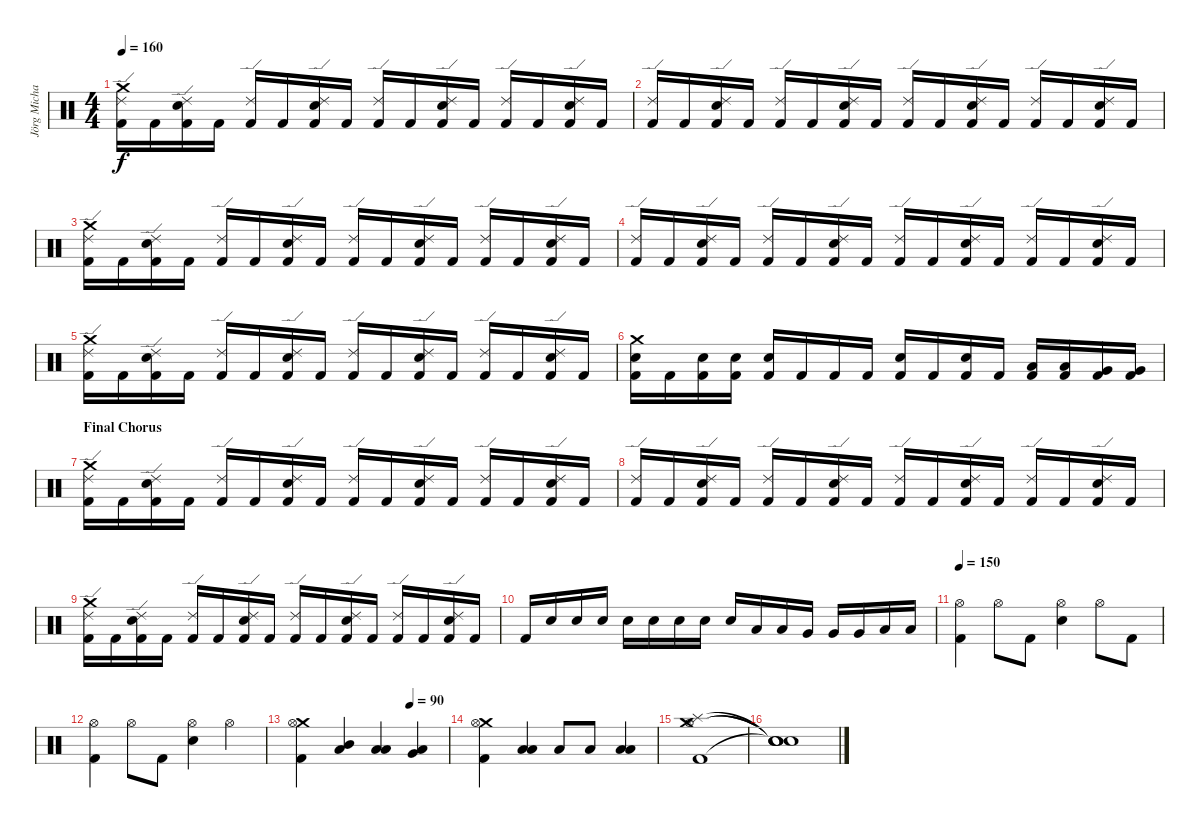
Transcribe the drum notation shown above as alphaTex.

\track ("Jörg Michael" "Jörg Micha") {instrument percussion}
\staff {score}
\articulation defaults
\ts (4 4)
\tempo 160
\clef neutral
\ks c
("Crash medium (hit)" "Ride (edge) 2" "Kick (hit) 2").16{dy f} "Kick (hit) 2".16 ("Electric Snare (hit)" "Ride (edge) 2" "Kick (hit) 2").16 "Kick (hit) 2".16 ("Ride (edge) 2" "Kick (hit) 2").16 "Kick (hit) 2".16 ("Electric Snare (hit)" "Ride (edge) 2" "Kick (hit) 2").16 "Kick (hit) 2".16 ("Ride (edge) 2" "Kick (hit) 2").16 "Kick (hit) 2".16 ("Electric Snare (hit)" "Ride (edge) 2" "Kick (hit) 2").16 "Kick (hit) 2".16 ("Ride (edge) 2" "Kick (hit) 2").16 "Kick (hit) 2".16 ("Electric Snare (hit)" "Ride (edge) 2" "Kick (hit) 2").16 "Kick (hit) 2".16 |
("Ride (edge) 2" "Kick (hit) 2").16 "Kick (hit) 2".16 ("Electric Snare (hit)" "Ride (edge) 2" "Kick (hit) 2").16 "Kick (hit) 2".16 ("Ride (edge) 2" "Kick (hit) 2").16 "Kick (hit) 2".16 ("Electric Snare (hit)" "Ride (edge) 2" "Kick (hit) 2").16 "Kick (hit) 2".16 ("Ride (edge) 2" "Kick (hit) 2").16 "Kick (hit) 2".16 ("Electric Snare (hit)" "Ride (edge) 2" "Kick (hit) 2").16 "Kick (hit) 2".16 ("Ride (edge) 2" "Kick (hit) 2").16 "Kick (hit) 2".16 ("Electric Snare (hit)" "Ride (edge) 2" "Kick (hit) 2").16 "Kick (hit) 2".16 |
("Crash medium (hit)" "Ride (edge) 2" "Kick (hit) 2").16 "Kick (hit) 2".16 ("Electric Snare (hit)" "Ride (edge) 2" "Kick (hit) 2").16 "Kick (hit) 2".16 ("Ride (edge) 2" "Kick (hit) 2").16 "Kick (hit) 2".16 ("Electric Snare (hit)" "Ride (edge) 2" "Kick (hit) 2").16 "Kick (hit) 2".16 ("Ride (edge) 2" "Kick (hit) 2").16 "Kick (hit) 2".16 ("Electric Snare (hit)" "Ride (edge) 2" "Kick (hit) 2").16 "Kick (hit) 2".16 ("Ride (edge) 2" "Kick (hit) 2").16 "Kick (hit) 2".16 ("Electric Snare (hit)" "Ride (edge) 2" "Kick (hit) 2").16 "Kick (hit) 2".16 |
("Ride (edge) 2" "Kick (hit) 2").16 "Kick (hit) 2".16 ("Electric Snare (hit)" "Ride (edge) 2" "Kick (hit) 2").16 "Kick (hit) 2".16 ("Ride (edge) 2" "Kick (hit) 2").16 "Kick (hit) 2".16 ("Electric Snare (hit)" "Ride (edge) 2" "Kick (hit) 2").16 "Kick (hit) 2".16 ("Ride (edge) 2" "Kick (hit) 2").16 "Kick (hit) 2".16 ("Electric Snare (hit)" "Ride (edge) 2" "Kick (hit) 2").16 "Kick (hit) 2".16 ("Ride (edge) 2" "Kick (hit) 2").16 "Kick (hit) 2".16 ("Electric Snare (hit)" "Ride (edge) 2" "Kick (hit) 2").16 "Kick (hit) 2".16 |
("Crash medium (hit)" "Ride (edge) 2" "Kick (hit) 2").16 "Kick (hit) 2".16 ("Electric Snare (hit)" "Ride (edge) 2" "Kick (hit) 2").16 "Kick (hit) 2".16 ("Ride (edge) 2" "Kick (hit) 2").16 "Kick (hit) 2".16 ("Electric Snare (hit)" "Ride (edge) 2" "Kick (hit) 2").16 "Kick (hit) 2".16 ("Ride (edge) 2" "Kick (hit) 2").16 "Kick (hit) 2".16 ("Electric Snare (hit)" "Ride (edge) 2" "Kick (hit) 2").16 "Kick (hit) 2".16 ("Ride (edge) 2" "Kick (hit) 2").16 "Kick (hit) 2".16 ("Electric Snare (hit)" "Ride (edge) 2" "Kick (hit) 2").16 "Kick (hit) 2".16 |
("Crash medium (hit)" "Electric Snare (hit)" "Kick (hit) 2").16 "Kick (hit) 2".16 ("Electric Snare (hit)" "Kick (hit) 2").16 ("Electric Snare (hit)" "Kick (hit) 2").16 ("Electric Snare (hit)" "Kick (hit) 2").16 "Kick (hit) 2".16 "Kick (hit) 2".16 "Kick (hit) 2".16 ("Electric Snare (hit)" "Kick (hit) 2").16 "Kick (hit) 2".16 ("Electric Snare (hit)" "Kick (hit) 2").16 "Kick (hit) 2".16 ("Low Tom (hit)" "Kick (hit) 2").16 ("Low Tom (hit)" "Kick (hit) 2").16 ("Very Low Tom (hit)" "Kick (hit) 2").16 ("Very Low Tom (hit)" "Kick (hit) 2").16 |
\section ("" "Final Chorus")
("Crash medium (hit)" "Ride (edge) 2" "Kick (hit) 2").16 "Kick (hit) 2".16 ("Electric Snare (hit)" "Ride (edge) 2" "Kick (hit) 2").16 "Kick (hit) 2".16 ("Ride (edge) 2" "Kick (hit) 2").16 "Kick (hit) 2".16 ("Electric Snare (hit)" "Ride (edge) 2" "Kick (hit) 2").16 "Kick (hit) 2".16 ("Ride (edge) 2" "Kick (hit) 2").16 "Kick (hit) 2".16 ("Electric Snare (hit)" "Ride (edge) 2" "Kick (hit) 2").16 "Kick (hit) 2".16 ("Ride (edge) 2" "Kick (hit) 2").16 "Kick (hit) 2".16 ("Electric Snare (hit)" "Ride (edge) 2" "Kick (hit) 2").16 "Kick (hit) 2".16 |
("Ride (edge) 2" "Kick (hit) 2").16 "Kick (hit) 2".16 ("Electric Snare (hit)" "Ride (edge) 2" "Kick (hit) 2").16 "Kick (hit) 2".16 ("Ride (edge) 2" "Kick (hit) 2").16 "Kick (hit) 2".16 ("Electric Snare (hit)" "Ride (edge) 2" "Kick (hit) 2").16 "Kick (hit) 2".16 ("Ride (edge) 2" "Kick (hit) 2").16 "Kick (hit) 2".16 ("Electric Snare (hit)" "Ride (edge) 2" "Kick (hit) 2").16 "Kick (hit) 2".16 ("Ride (edge) 2" "Kick (hit) 2").16 "Kick (hit) 2".16 ("Electric Snare (hit)" "Ride (edge) 2" "Kick (hit) 2").16 "Kick (hit) 2".16 |
("Crash medium (hit)" "Ride (edge) 2" "Kick (hit) 2").16 "Kick (hit) 2".16 ("Electric Snare (hit)" "Ride (edge) 2" "Kick (hit) 2").16 "Kick (hit) 2".16 ("Ride (edge) 2" "Kick (hit) 2").16 "Kick (hit) 2".16 ("Electric Snare (hit)" "Ride (edge) 2" "Kick (hit) 2").16 "Kick (hit) 2".16 ("Ride (edge) 2" "Kick (hit) 2").16 "Kick (hit) 2".16 ("Electric Snare (hit)" "Ride (edge) 2" "Kick (hit) 2").16 "Kick (hit) 2".16 ("Ride (edge) 2" "Kick (hit) 2").16 "Kick (hit) 2".16 ("Electric Snare (hit)" "Ride (edge) 2" "Kick (hit) 2").16 "Kick (hit) 2".16 |
"Kick (hit) 2".16 "Electric Snare (hit)".16 "Electric Snare (hit)".16 "Electric Snare (hit)".16 "Electric Snare (hit)".16 "Electric Snare (hit)".16 "Electric Snare (hit)".16 "Electric Snare (hit)".16 "Electric Snare (hit)".16 "Low Tom (hit)".16 "Low Tom (hit)".16 "Very Low Tom (hit)".16 "Very Low Tom (hit)".16 "Very Low Tom (hit)".16 "Low Floor Tom (hit)".16 "Low Floor Tom (hit)".16 |
\tempo 150
("Kick (hit) 2" "Hi-Hat (open)").4 "Hi-Hat (open)".8 "Kick (hit) 2".8 ("Electric Snare (hit)" "Hi-Hat (open)").4 "Hi-Hat (open)".8 "Kick (hit) 2".8 |
("Kick (hit) 2" "Hi-Hat (open)").4 "Hi-Hat (open)".8 "Kick (hit) 2".8 ("Electric Snare (hit)" "Hi-Hat (open)").4 "Hi-Hat (open)".4 |
\tempo (90 0.75)
("Crash medium (hit)" "Kick (hit) 2" "Hi-Hat (open)").4 ("Mid Tom (hit)" "Low Floor Tom (hit)").4 ("Low Floor Tom (hit)" "Low Tom (hit)").4 ("Very Low Tom (hit)" "Low Floor Tom (hit)").4 |
("Crash medium (hit)" "Hi-Hat (open)" "Kick (hit) 2").4 ("Low Tom (hit)" "Low Floor Tom (hit)").4 "Low Tom (hit)".8 "Low Floor Tom (hit)".8 ("Low Floor Tom (hit)" "Low Tom (hit)").4 |
("Crash medium (hit)" "Splash (hit)" "Hi-Hat (open)" "Kick (hit) 2").1 |
("Snare (hit)"{t} "Snare (hit)"{t} "Snare (hit)"{t} "Snare (hit)"{t}).1
